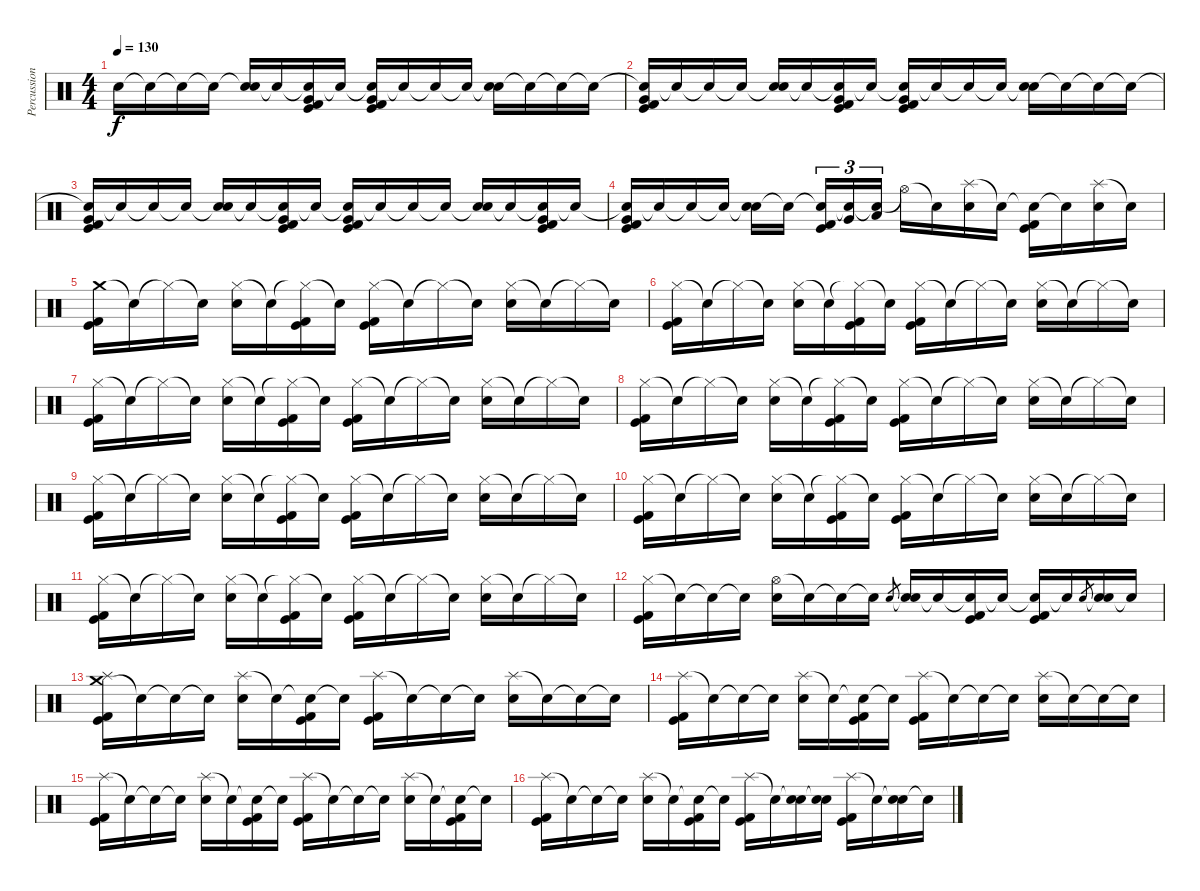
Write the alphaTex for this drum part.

\track ("Percussion" "Percussion") {instrument percussion}
\staff {score}
\articulation defaults
\ts (4 4)
\tempo 130
\clef neutral
\ks c "Snare (hit)"{t}.16{dy f} "Snare (hit)"{t}.16 "Snare (hit)"{t}.16 "Snare (hit)"{t}.16
("Snare (hit)"{t} "Electric Snare (hit)").16 "Snare (hit)"{t}.16 ("Snare (hit)"{t} "Very Low Tom (hit)" "Kick (hit)" "Kick (hit) 2").16 "Snare (hit)"{t}.16 ("Snare (hit)"{t} "Very Low Tom (hit)" "Kick (hit)" "Kick (hit) 2").16 "Snare (hit)"{t}.16 "Snare (hit)"{t}.16 "Snare (hit)"{t}.16 ("Snare (hit)"{t} "Electric Snare (hit)").16 "Snare (hit)"{t}.16 "Snare (hit)"{t}.16 "Snare (hit)"{t}.16 |
("Snare (hit)"{t} "Very Low Tom (hit)" "Kick (hit)" "Kick (hit) 2").16 "Snare (hit)"{t}.16 "Snare (hit)"{t}.16 "Snare (hit)"{t}.16 ("Snare (hit)"{t} "Electric Snare (hit)").16 "Snare (hit)"{t}.16 ("Snare (hit)"{t} "Very Low Tom (hit)" "Kick (hit)" "Kick (hit) 2").16 "Snare (hit)"{t}.16 ("Snare (hit)"{t} "Very Low Tom (hit)" "Kick (hit)" "Kick (hit) 2").16 "Snare (hit)"{t}.16 "Snare (hit)"{t}.16 "Snare (hit)"{t}.16 ("Snare (hit)"{t} "Electric Snare (hit)").16 "Snare (hit)"{t}.16 "Snare (hit)"{t}.16 "Snare (hit)"{t}.16 |
("Snare (hit)"{t} "Very Low Tom (hit)" "Kick (hit)" "Kick (hit) 2").16 "Snare (hit)"{t}.16 "Snare (hit)"{t}.16 "Snare (hit)"{t}.16 ("Snare (hit)"{t} "Electric Snare (hit)").16 "Snare (hit)"{t}.16 ("Snare (hit)"{t} "Very Low Tom (hit)" "Kick (hit)" "Kick (hit) 2").16 "Snare (hit)"{t}.16 ("Snare (hit)"{t} "Very Low Tom (hit)" "Kick (hit)" "Kick (hit) 2").16 "Snare (hit)"{t}.16 "Snare (hit)"{t}.16 "Snare (hit)"{t}.16 ("Snare (hit)"{t} "Electric Snare (hit)").16 "Snare (hit)"{t}.16 ("Snare (hit)"{t} "Very Low Tom (hit)" "Kick (hit)" "Kick (hit) 2").16 "Snare (hit)"{t}.16 |
("Snare (hit)"{t} "Very Low Tom (hit)" "Kick (hit)" "Kick (hit) 2").16 "Snare (hit)"{t}.16 "Snare (hit)"{t}.16 "Snare (hit)"{t}.16 ("Snare (hit)"{t} "Electric Snare (hit)").16 "Snare (hit)"{t}.16{beam splitsecondary} ("Snare (hit)"{t} "Kick (hit)" "Kick (hit) 2").16{tu (3 2)} ("Snare (hit)"{t} "Very Low Tom (hit)").16{tu (3 2)} ("Snare (hit)"{t} "Low Tom (hit)").16{tu (3 2)} "Hi-Hat (open)"{t}.16 "Snare (hit)"{t}.16 ("Splash (hit)" "Electric Snare (hit)").16 "Snare (hit)"{t}.16 ("Snare (hit)"{t} "Kick (hit)" "Kick (hit) 2").16 "Snare (hit)"{t}.16 ("Splash (hit)" "Electric Snare (hit)").16 "Snare (hit)"{t}.16 |
("Crash medium (hit)" "Kick (hit)" "Kick (hit) 2").16 "Snare (hit)"{t}.16 "Hi-Hat (closed)"{t}.16 "Snare (hit)"{t}.16 ("Hi-Hat (closed)" "Electric Snare (hit)").16 "Snare (hit)"{t}.16 ("Hi-Hat (closed)"{t} "Kick (hit)" "Kick (hit) 2").16 "Snare (hit)"{t}.16 ("Hi-Hat (closed)" "Kick (hit)" "Kick (hit) 2").16 "Snare (hit)"{t}.16 "Hi-Hat (closed)"{t}.16 "Snare (hit)"{t}.16 ("Hi-Hat (closed)" "Electric Snare (hit)").16 "Snare (hit)"{t}.16 "Hi-Hat (closed)"{t}.16 "Snare (hit)"{t}.16 |
("Hi-Hat (closed)" "Kick (hit)" "Kick (hit) 2").16 "Snare (hit)"{t}.16 "Hi-Hat (closed)"{t}.16 "Snare (hit)"{t}.16 ("Hi-Hat (closed)" "Electric Snare (hit)").16 "Snare (hit)"{t}.16 ("Hi-Hat (closed)"{t} "Kick (hit)" "Kick (hit) 2").16 "Snare (hit)"{t}.16 ("Hi-Hat (closed)" "Kick (hit)" "Kick (hit) 2").16 "Snare (hit)"{t}.16 "Hi-Hat (closed)"{t}.16 "Snare (hit)"{t}.16 ("Hi-Hat (closed)" "Electric Snare (hit)").16 "Snare (hit)"{t}.16 "Hi-Hat (closed)"{t}.16 "Snare (hit)"{t}.16 |
("Hi-Hat (closed)" "Kick (hit)" "Kick (hit) 2").16 "Snare (hit)"{t}.16 "Hi-Hat (closed)"{t}.16 "Snare (hit)"{t}.16 ("Hi-Hat (closed)" "Electric Snare (hit)").16 "Snare (hit)"{t}.16 ("Hi-Hat (closed)"{t} "Kick (hit)" "Kick (hit) 2").16 "Snare (hit)"{t}.16 ("Hi-Hat (closed)" "Kick (hit)" "Kick (hit) 2").16 "Snare (hit)"{t}.16 "Hi-Hat (closed)"{t}.16 "Snare (hit)"{t}.16 ("Hi-Hat (closed)" "Electric Snare (hit)").16 "Snare (hit)"{t}.16 "Hi-Hat (closed)"{t}.16 "Snare (hit)"{t}.16 |
("Hi-Hat (closed)" "Kick (hit)" "Kick (hit) 2").16 "Snare (hit)"{t}.16 "Hi-Hat (closed)"{t}.16 "Snare (hit)"{t}.16 ("Hi-Hat (closed)" "Electric Snare (hit)").16 "Snare (hit)"{t}.16 ("Hi-Hat (closed)"{t} "Kick (hit)" "Kick (hit) 2").16 "Snare (hit)"{t}.16 ("Hi-Hat (closed)" "Kick (hit)" "Kick (hit) 2").16 "Snare (hit)"{t}.16 "Hi-Hat (closed)"{t}.16 "Snare (hit)"{t}.16 ("Hi-Hat (closed)" "Electric Snare (hit)").16 "Snare (hit)"{t}.16 "Hi-Hat (closed)"{t}.16 "Snare (hit)"{t}.16 |
("Hi-Hat (closed)" "Kick (hit)" "Kick (hit) 2").16 "Snare (hit)"{t}.16 "Hi-Hat (closed)"{t}.16 "Snare (hit)"{t}.16 ("Hi-Hat (closed)" "Electric Snare (hit)").16 "Snare (hit)"{t}.16 ("Hi-Hat (closed)"{t} "Kick (hit)" "Kick (hit) 2").16 "Snare (hit)"{t}.16 ("Hi-Hat (closed)" "Kick (hit)" "Kick (hit) 2").16 "Snare (hit)"{t}.16 "Hi-Hat (closed)"{t}.16 "Snare (hit)"{t}.16 ("Hi-Hat (closed)" "Electric Snare (hit)").16 "Snare (hit)"{t}.16 "Hi-Hat (closed)"{t}.16 "Snare (hit)"{t}.16 |
("Hi-Hat (closed)" "Kick (hit)" "Kick (hit) 2").16 "Snare (hit)"{t}.16 "Hi-Hat (closed)"{t}.16 "Snare (hit)"{t}.16 ("Hi-Hat (closed)" "Electric Snare (hit)").16 "Snare (hit)"{t}.16 ("Hi-Hat (closed)"{t} "Kick (hit)" "Kick (hit) 2").16 "Snare (hit)"{t}.16 ("Hi-Hat (closed)" "Kick (hit)" "Kick (hit) 2").16 "Snare (hit)"{t}.16 "Hi-Hat (closed)"{t}.16 "Snare (hit)"{t}.16 ("Hi-Hat (closed)" "Electric Snare (hit)").16 "Snare (hit)"{t}.16 "Hi-Hat (closed)"{t}.16 "Snare (hit)"{t}.16 |
("Hi-Hat (closed)" "Kick (hit)" "Kick (hit) 2").16 "Snare (hit)"{t}.16 "Hi-Hat (closed)"{t}.16 "Snare (hit)"{t}.16 ("Hi-Hat (closed)" "Electric Snare (hit)").16 "Snare (hit)"{t}.16 ("Hi-Hat (closed)"{t} "Kick (hit)" "Kick (hit) 2").16 "Snare (hit)"{t}.16 ("Hi-Hat (closed)" "Kick (hit)" "Kick (hit) 2").16 "Snare (hit)"{t}.16 "Hi-Hat (closed)"{t}.16 "Snare (hit)"{t}.16 ("Hi-Hat (closed)" "Electric Snare (hit)").16 "Snare (hit)"{t}.16 "Hi-Hat (closed)"{t}.16 "Snare (hit)"{t}.16 |
("Hi-Hat (closed)" "Kick (hit)" "Kick (hit) 2").16 "Snare (hit)"{t}.16 "Snare (hit)"{t}.16 "Snare (hit)"{t}.16 ("Hi-Hat (open)" "Electric Snare (hit)").16 "Snare (hit)"{t}.16 "Snare (hit)"{t}.16 "Snare (hit)"{t}.16 "Electric Snare (hit)".8{gr} ("Snare (hit)"{t} "Electric Snare (hit)").16 "Snare (hit)"{t}.16 ("Snare (hit)"{t} "Kick (hit)" "Kick (hit) 2").16 "Snare (hit)"{t}.16 ("Snare (hit)"{t} "Kick (hit)" "Kick (hit) 2").16 "Snare (hit)"{t}.16 "Electric Snare (hit)".8{gr} ("Snare (hit)"{t} "Electric Snare (hit)").16 "Snare (hit)"{t}.16 |
("Crash medium (hit)" "Splash (hit)" "Kick (hit)" "Kick (hit) 2").16 "Snare (hit)"{t}.16 "Snare (hit)"{t}.16 "Snare (hit)"{t}.16 ("Splash (hit)" "Electric Snare (hit)").16 "Snare (hit)"{t}.16 ("Snare (hit)"{t} "Kick (hit)" "Kick (hit) 2").16 "Snare (hit)"{t}.16 ("Splash (hit)" "Kick (hit)" "Kick (hit) 2").16 "Snare (hit)"{t}.16 "Snare (hit)"{t}.16 "Snare (hit)"{t}.16 ("Splash (hit)" "Electric Snare (hit)").16 "Snare (hit)"{t}.16 "Snare (hit)"{t}.16 "Snare (hit)"{t}.16 |
("Splash (hit)" "Kick (hit)" "Kick (hit) 2").16 "Snare (hit)"{t}.16 "Snare (hit)"{t}.16 "Snare (hit)"{t}.16 ("Splash (hit)" "Electric Snare (hit)").16 "Snare (hit)"{t}.16 ("Snare (hit)"{t} "Kick (hit)" "Kick (hit) 2").16 "Snare (hit)"{t}.16 ("Splash (hit)" "Kick (hit)" "Kick (hit) 2").16 "Snare (hit)"{t}.16 "Snare (hit)"{t}.16 "Snare (hit)"{t}.16 ("Splash (hit)" "Electric Snare (hit)").16 "Snare (hit)"{t}.16 "Snare (hit)"{t}.16 "Snare (hit)"{t}.16 |
("Splash (hit)" "Kick (hit)" "Kick (hit) 2").16 "Snare (hit)"{t}.16 "Snare (hit)"{t}.16 "Snare (hit)"{t}.16 ("Splash (hit)" "Electric Snare (hit)").16 "Snare (hit)"{t}.16 ("Snare (hit)"{t} "Kick (hit)" "Kick (hit) 2").16 "Snare (hit)"{t}.16 ("Splash (hit)" "Kick (hit)" "Kick (hit) 2").16 "Snare (hit)"{t}.16 "Snare (hit)"{t}.16 "Snare (hit)"{t}.16 ("Splash (hit)" "Electric Snare (hit)").16 "Snare (hit)"{t}.16 ("Snare (hit)"{t} "Kick (hit)" "Kick (hit) 2").16 "Snare (hit)"{t}.16 |
("Splash (hit)" "Kick (hit)" "Kick (hit) 2").16 "Snare (hit)"{t}.16 "Snare (hit)"{t}.16 "Snare (hit)"{t}.16 ("Splash (hit)" "Electric Snare (hit)").16 "Snare (hit)"{t}.16 ("Snare (hit)"{t} "Kick (hit)" "Kick (hit) 2").16 "Snare (hit)"{t}.16 ("Splash (hit)" "Kick (hit)" "Kick (hit) 2").16 "Snare (hit)"{t}.16 ("Snare (hit)"{t} "Electric Snare (hit)").16 ("Snare (hit)"{t} "Electric Snare (hit)").16 ("Splash (hit)" "Kick (hit)" "Kick (hit) 2").16 "Snare (hit)"{t}.16 ("Snare (hit)"{t} "Electric Snare (hit)").16 "Snare (hit)"{t}.16
